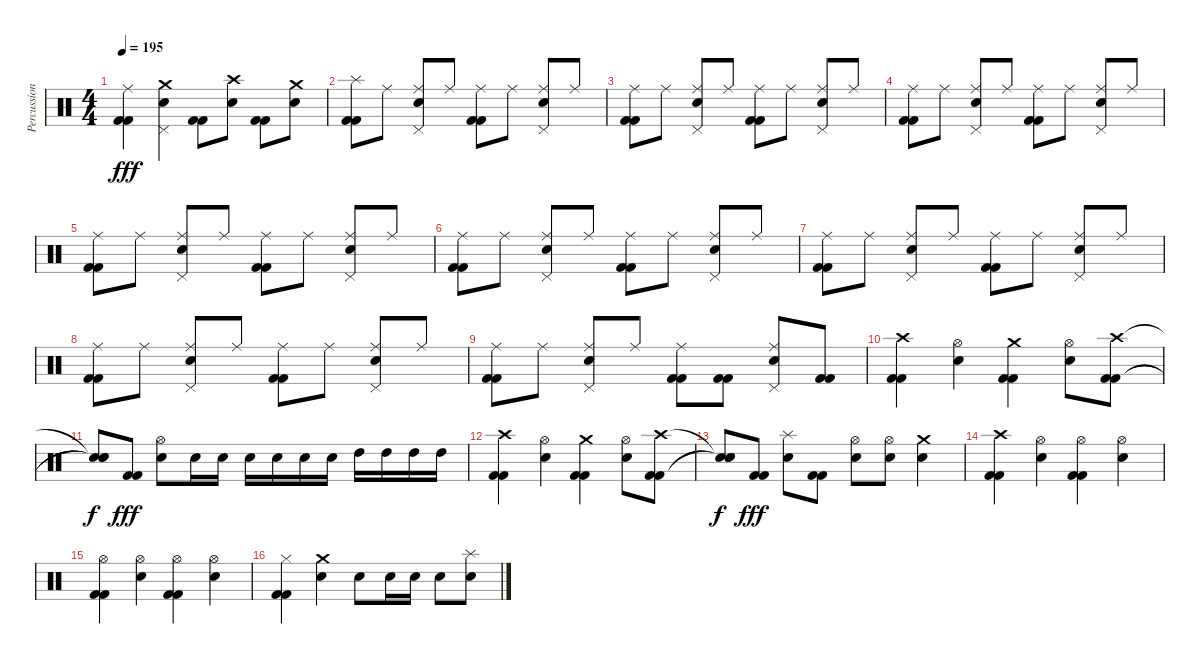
\track ("Percussions" "Percussion") {instrument percussion}
\staff {score}
\articulation defaults
\ts (4 4)
\tempo 195
\clef neutral
\ks c
("Ride (middle)" "Kick (hit) 2" "Kick (hit) 2").4{dy fff} ("Crash medium (hit)" "Electric Snare (hit)" "Pedal Hi-Hat (hit)").4 ("Kick (hit) 2" "Kick (hit) 2").8 ("Crash high (hit)" "Electric Snare (hit)").8 ("Kick (hit) 2" "Kick (hit) 2").8 ("Crash medium (hit)" "Electric Snare (hit)").8 |
("Splash (hit)" "Kick (hit) 2" "Kick (hit) 2").8 "Ride (middle)".8 ("Ride (middle)" "Pedal Hi-Hat (hit)" "Electric Snare (hit)").8 "Ride (middle)".8 ("Ride (middle)" "Kick (hit) 2" "Kick (hit) 2").8 "Ride (middle)".8 ("Ride (middle)" "Pedal Hi-Hat (hit)" "Electric Snare (hit)").8 "Ride (middle)".8 |
("Ride (middle)" "Kick (hit) 2" "Kick (hit) 2").8 "Ride (middle)".8 ("Ride (middle)" "Pedal Hi-Hat (hit)" "Electric Snare (hit)").8 "Ride (middle)".8 ("Ride (middle)" "Kick (hit) 2" "Kick (hit) 2").8 "Ride (middle)".8 ("Ride (middle)" "Pedal Hi-Hat (hit)" "Electric Snare (hit)").8 "Ride (middle)".8 |
("Ride (middle)" "Kick (hit) 2" "Kick (hit) 2").8 "Ride (middle)".8 ("Ride (middle)" "Pedal Hi-Hat (hit)" "Electric Snare (hit)").8 "Ride (middle)".8 ("Ride (middle)" "Kick (hit) 2" "Kick (hit) 2").8 "Ride (middle)".8 ("Ride (middle)" "Pedal Hi-Hat (hit)" "Electric Snare (hit)").8 "Ride (middle)".8 |
("Ride (middle)" "Kick (hit) 2" "Kick (hit) 2").8 "Ride (middle)".8 ("Ride (middle)" "Pedal Hi-Hat (hit)" "Electric Snare (hit)").8 "Ride (middle)".8 ("Ride (middle)" "Kick (hit) 2" "Kick (hit) 2").8 "Ride (middle)".8 ("Ride (middle)" "Pedal Hi-Hat (hit)" "Electric Snare (hit)").8 "Ride (middle)".8 |
("Ride (middle)" "Kick (hit) 2" "Kick (hit) 2").8 "Ride (middle)".8 ("Ride (middle)" "Pedal Hi-Hat (hit)" "Electric Snare (hit)").8 "Ride (middle)".8 ("Ride (middle)" "Kick (hit) 2" "Kick (hit) 2").8 "Ride (middle)".8 ("Ride (middle)" "Pedal Hi-Hat (hit)" "Electric Snare (hit)").8 "Ride (middle)".8 |
("Ride (middle)" "Kick (hit) 2" "Kick (hit) 2").8 "Ride (middle)".8 ("Ride (middle)" "Pedal Hi-Hat (hit)" "Electric Snare (hit)").8 "Ride (middle)".8 ("Ride (middle)" "Kick (hit) 2" "Kick (hit) 2").8 "Ride (middle)".8 ("Ride (middle)" "Pedal Hi-Hat (hit)" "Electric Snare (hit)").8 "Ride (middle)".8 |
("Ride (middle)" "Kick (hit) 2" "Kick (hit) 2").8 "Ride (middle)".8 ("Ride (middle)" "Pedal Hi-Hat (hit)" "Electric Snare (hit)").8 "Ride (middle)".8 ("Ride (middle)" "Kick (hit) 2" "Kick (hit) 2").8 "Ride (middle)".8 ("Ride (middle)" "Pedal Hi-Hat (hit)" "Electric Snare (hit)").8 "Ride (middle)".8 |
("Ride (middle)" "Kick (hit) 2" "Kick (hit) 2").8 "Ride (middle)".8 ("Ride (middle)" "Pedal Hi-Hat (hit)" "Electric Snare (hit)").8 "Ride (middle)".8 ("Ride (middle)" "Kick (hit) 2" "Kick (hit) 2").8 ("Kick (hit) 2" "Kick (hit) 2").8 ("Ride (middle)" "Pedal Hi-Hat (hit)" "Electric Snare (hit)").8 ("Kick (hit) 2" "Kick (hit) 2").8 |
("Crash high (hit)" "Kick (hit) 2" "Kick (hit) 2").4 ("Hi-Hat (open)" "Electric Snare (hit)").4 ("Crash medium (hit)" "Kick (hit) 2" "Kick (hit) 2").4 ("Hi-Hat (open)" "Electric Snare (hit)").8 ("Crash high (hit)" "Kick (hit) 2" "Kick (hit) 2").8 |
("Snare (hit)"{t} "Snare (hit)"{t} "Snare (hit)"{t}).8{dy f} ("Kick (hit) 2" "Kick (hit) 2").8{dy fff} ("Hi-Hat (open)" "Electric Snare (hit)").8 "Electric Snare (hit)".16 "Electric Snare (hit)".16 "Electric Snare (hit)".16 "Electric Snare (hit)".16 "Electric Snare (hit)".16 "Electric Snare (hit)".16 "High Tom (hit)".16 "High Tom (hit)".16 "High Tom (hit)".16 "High Tom (hit)".16 |
("Crash high (hit)" "Kick (hit) 2" "Kick (hit) 2").4 ("Hi-Hat (open)" "Electric Snare (hit)").4 ("Crash medium (hit)" "Kick (hit) 2" "Kick (hit) 2").4 ("Hi-Hat (open)" "Electric Snare (hit)").8 ("Crash high (hit)" "Kick (hit) 2" "Kick (hit) 2").8 |
("Snare (hit)"{t} "Snare (hit)"{t} "Snare (hit)"{t}).8{dy f} ("Kick (hit) 2" "Kick (hit) 2").8{dy fff} ("Splash (hit)" "Electric Snare (hit)").8 ("Kick (hit) 2" "Kick (hit) 2").8 ("Hi-Hat (open)" "Electric Snare (hit)").8 ("Hi-Hat (open)" "Electric Snare (hit)").8 ("Crash medium (hit)" "Electric Snare (hit)").4 |
("Crash high (hit)" "Kick (hit) 2" "Kick (hit) 2").4 ("Hi-Hat (open)" "Electric Snare (hit)").4 ("Hi-Hat (open)" "Kick (hit) 2" "Kick (hit) 2").4 ("Hi-Hat (open)" "Electric Snare (hit)").4 |
("Hi-Hat (open)" "Kick (hit) 2" "Kick (hit) 2").4 ("Hi-Hat (open)" "Electric Snare (hit)").4 ("Hi-Hat (open)" "Kick (hit) 2" "Kick (hit) 2").4 ("Hi-Hat (open)" "Electric Snare (hit)").4 |
("Hi-Hat (closed)" "Kick (hit) 2" "Kick (hit) 2").4 ("Crash medium (hit)" "Electric Snare (hit)").4 "Electric Snare (hit)".8 "Electric Snare (hit)".16 "Electric Snare (hit)".16 "Electric Snare (hit)".8 ("Splash (hit)" "Electric Snare (hit)").8
